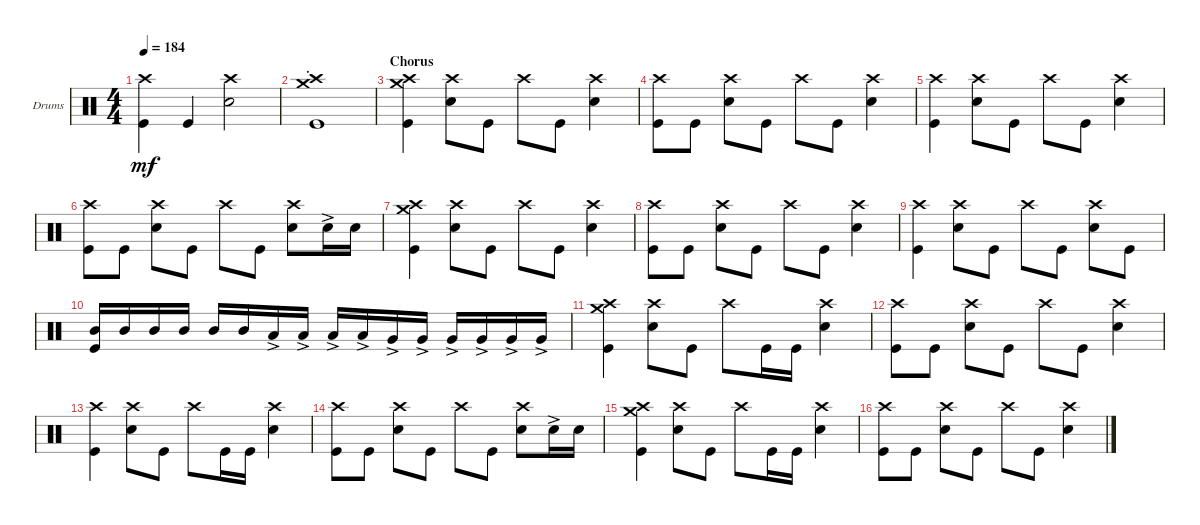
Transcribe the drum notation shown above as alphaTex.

\defaultSystemsLayout 4
\bracketExtendMode groupsimilarinstruments
\firstSystemTrackNameOrientation horizontal
\otherSystemsTrackNameOrientation horizontal
\track ("Drums (Phoenix)" "Drums") {instrument percussion}
\staff {score}
\articulation defaults
\ts (4 4)
\tempo 184
\clef neutral
\ks c
("Kick (hit)" "Crash high (hit)").4{dy mf} "Kick (hit)".4 ("Snare (hit) 2" "Crash high (hit)").2 |
("Kick (hit)" "Crash high (hit)"{st} "Crash medium (hit)"{st}).1 |
\section ("" "Chorus")
("Kick (hit)" "Crash high (hit)" "Crash medium (hit)").4 ("Snare (hit) 2" "Crash high (hit)").8 "Kick (hit)".8 "Crash high (hit)".8 "Kick (hit)".8 ("Snare (hit) 2" "Crash high (hit)").4 |
("Kick (hit)" "Crash high (hit)").8 "Kick (hit)".8 ("Snare (hit) 2" "Crash high (hit)").8 "Kick (hit)".8 "Crash high (hit)".8 "Kick (hit)".8 ("Snare (hit) 2" "Crash high (hit)").4 |
("Kick (hit)" "Crash high (hit)").4 ("Snare (hit) 2" "Crash high (hit)").8 "Kick (hit)".8 "Crash high (hit)".8 "Kick (hit)".8 ("Snare (hit) 2" "Crash high (hit)").4 |
("Kick (hit)" "Crash high (hit)").8 "Kick (hit)".8 ("Snare (hit) 2" "Crash high (hit)").8 "Kick (hit)".8 "Crash high (hit)".8 "Kick (hit)".8 ("Snare (hit) 2" "Crash high (hit)").8 "Snare (hit) 2"{ac}.16 "Snare (hit) 2".16 |
("Kick (hit)" "Crash high (hit)" "Crash medium (hit)").4 ("Snare (hit) 2" "Crash high (hit)").8 "Kick (hit)".8 "Crash high (hit)".8 "Kick (hit)".8 ("Snare (hit) 2" "Crash high (hit)").4 |
("Kick (hit)" "Crash high (hit)").8 "Kick (hit)".8 ("Snare (hit) 2" "Crash high (hit)").8 "Kick (hit)".8 "Crash high (hit)".8 "Kick (hit)".8 ("Snare (hit) 2" "Crash high (hit)").4 |
("Kick (hit)" "Crash high (hit)").4 ("Snare (hit) 2" "Crash high (hit)").8 "Kick (hit)".8 "Crash high (hit)".8 "Kick (hit)".8 ("Snare (hit) 2" "Crash high (hit)").8 "Kick (hit)".8 |
("Mid Tom (hit)" "Kick (hit)").16 "Mid Tom (hit)".16 "Mid Tom (hit)".16 "Mid Tom (hit)".16 "Mid Tom (hit)".16 "Mid Tom (hit)".16 "Low Tom (hit)"{ac}.16 "Low Tom (hit)"{ac}.16 "Low Tom (hit)"{ac}.16 "Low Tom (hit)"{ac}.16 "Very Low Tom (hit)"{ac}.16 "Very Low Tom (hit)"{ac}.16 "Very Low Tom (hit)"{ac}.16 "Very Low Tom (hit)"{ac}.16 "Very Low Tom (hit)"{ac}.16 "Very Low Tom (hit)"{ac}.16 |
("Kick (hit)" "Crash high (hit)" "Crash medium (hit)").4 ("Snare (hit) 2" "Crash high (hit)").8 "Kick (hit)".8 "Crash high (hit)".8 "Kick (hit)".16 "Kick (hit)".16 ("Snare (hit) 2" "Crash high (hit)").4 |
("Kick (hit)" "Crash high (hit)").8 "Kick (hit)".8 ("Snare (hit) 2" "Crash high (hit)").8 "Kick (hit)".8 "Crash high (hit)".8 "Kick (hit)".8 ("Snare (hit) 2" "Crash high (hit)").4 |
("Kick (hit)" "Crash high (hit)").4 ("Snare (hit) 2" "Crash high (hit)").8 "Kick (hit)".8 "Crash high (hit)".8 "Kick (hit)".16 "Kick (hit)".16 ("Snare (hit) 2" "Crash high (hit)").4 |
("Kick (hit)" "Crash high (hit)").8 "Kick (hit)".8 ("Snare (hit) 2" "Crash high (hit)").8 "Kick (hit)".8 "Crash high (hit)".8 "Kick (hit)".8 ("Snare (hit) 2" "Crash high (hit)").8 "Snare (hit) 2"{ac}.16 "Snare (hit) 2".16 |
("Kick (hit)" "Crash high (hit)" "Crash medium (hit)").4 ("Snare (hit) 2" "Crash high (hit)").8 "Kick (hit)".8 "Crash high (hit)".8 "Kick (hit)".16 "Kick (hit)".16 ("Snare (hit) 2" "Crash high (hit)").4 |
("Kick (hit)" "Crash high (hit)").8 "Kick (hit)".8 ("Snare (hit) 2" "Crash high (hit)").8 "Kick (hit)".8 "Crash high (hit)".8 "Kick (hit)".8 ("Snare (hit) 2" "Crash high (hit)").4
